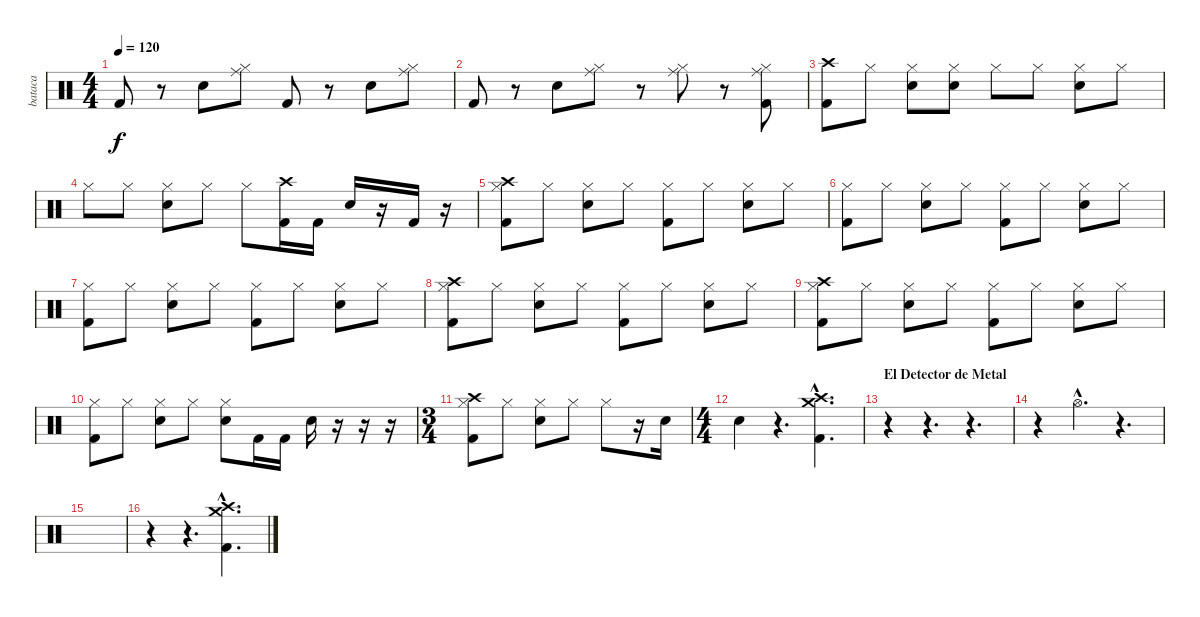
\track ("bataca" "bataca") {instrument percussion}
\staff {score}
\articulation defaults
\ts (4 4)
\tempo 120
\clef neutral
\ks c "Kick (hit) 2".8{dy f}
r.8 "Electric Snare (hit)".8 ("Ride (middle)" "Hi-Hat (closed)").8 "Kick (hit) 2".8 r.8 "Electric Snare (hit)".8 ("Ride (middle)" "Hi-Hat (closed)").8 |
"Kick (hit) 2".8 r.8 "Electric Snare (hit)".8 ("Ride (middle)" "Hi-Hat (closed)").8 r.8 ("Ride (middle)" "Hi-Hat (closed)").8 r.8 ("Ride (middle)" "Hi-Hat (closed)" "Kick (hit) 2").8 |
("Crash high (hit)" "Kick (hit) 2").8 "Hi-Hat (closed)".8 ("Hi-Hat (closed)" "Electric Snare (hit)").8 ("Hi-Hat (closed)" "Electric Snare (hit)").8 "Hi-Hat (closed)".8 "Hi-Hat (closed)".8 ("Hi-Hat (closed)" "Electric Snare (hit)").8 "Hi-Hat (closed)".8 |
"Hi-Hat (closed)".8 "Hi-Hat (closed)".8 ("Hi-Hat (closed)" "Electric Snare (hit)").8 "Hi-Hat (closed)".8 "Hi-Hat (closed)".8 ("Crash high (hit)" "Kick (hit) 2").16 "Kick (hit) 2".16 "Electric Snare (hit)".16 r.16 "Kick (hit) 2".16 r.16 |
("Hi-Hat (closed)" "Kick (hit) 2" "Crash high (hit)").8 "Hi-Hat (closed)".8 ("Hi-Hat (closed)" "Electric Snare (hit)").8 "Hi-Hat (closed)".8 ("Hi-Hat (closed)" "Kick (hit) 2").8 "Hi-Hat (closed)".8 ("Hi-Hat (closed)" "Electric Snare (hit)").8 "Hi-Hat (closed)".8 |
("Hi-Hat (closed)" "Kick (hit) 2").8 "Hi-Hat (closed)".8 ("Hi-Hat (closed)" "Electric Snare (hit)").8 "Hi-Hat (closed)".8 ("Hi-Hat (closed)" "Kick (hit) 2").8 "Hi-Hat (closed)".8 ("Hi-Hat (closed)" "Electric Snare (hit)").8 "Hi-Hat (closed)".8 |
("Hi-Hat (closed)" "Kick (hit) 2").8 "Hi-Hat (closed)".8 ("Hi-Hat (closed)" "Electric Snare (hit)").8 "Hi-Hat (closed)".8 ("Hi-Hat (closed)" "Kick (hit) 2").8 "Hi-Hat (closed)".8 ("Hi-Hat (closed)" "Electric Snare (hit)").8 "Hi-Hat (closed)".8 |
("Hi-Hat (closed)" "Kick (hit) 2" "Crash high (hit)").8 "Hi-Hat (closed)".8 ("Hi-Hat (closed)" "Electric Snare (hit)").8 "Hi-Hat (closed)".8 ("Hi-Hat (closed)" "Kick (hit) 2").8 "Hi-Hat (closed)".8 ("Hi-Hat (closed)" "Electric Snare (hit)").8 "Hi-Hat (closed)".8 |
("Hi-Hat (closed)" "Kick (hit) 2" "Crash high (hit)").8 "Hi-Hat (closed)".8 ("Hi-Hat (closed)" "Electric Snare (hit)").8 "Hi-Hat (closed)".8 ("Hi-Hat (closed)" "Kick (hit) 2").8 "Hi-Hat (closed)".8 ("Hi-Hat (closed)" "Electric Snare (hit)").8 "Hi-Hat (closed)".8 |
("Hi-Hat (closed)" "Kick (hit) 2").8 "Hi-Hat (closed)".8 ("Hi-Hat (closed)" "Electric Snare (hit)").8 "Hi-Hat (closed)".8 ("Hi-Hat (closed)" "Electric Snare (hit)").8 "Kick (hit) 2".16 "Kick (hit) 2".16 "Electric Snare (hit)".16 r.16 r.16 r.16 |
\ts (3 4)
("Hi-Hat (closed)" "Kick (hit) 2" "Crash high (hit)").8 "Hi-Hat (closed)".8 ("Hi-Hat (closed)" "Electric Snare (hit)").8 "Hi-Hat (closed)".8 "Hi-Hat (closed)".8 r.16 "Electric Snare (hit)".16 |
\ts (4 4)
"Electric Snare (hit)".4 r.4{d} ("Kick (hit) 2"{hac} "Crash high (hit)"{hac} "Crash medium (hit)"{hac}).4{d} |
\section ("" "El Detector de Metal")
r.4 r.4{d} r.4{d} |
r.4 "Hi-Hat (open)"{hac}.4{d} r.4{d} |
|
r.4 r.4{d} ("Kick (hit) 2"{hac} "Crash high (hit)"{hac} "Crash medium (hit)"{hac}).4{d}
